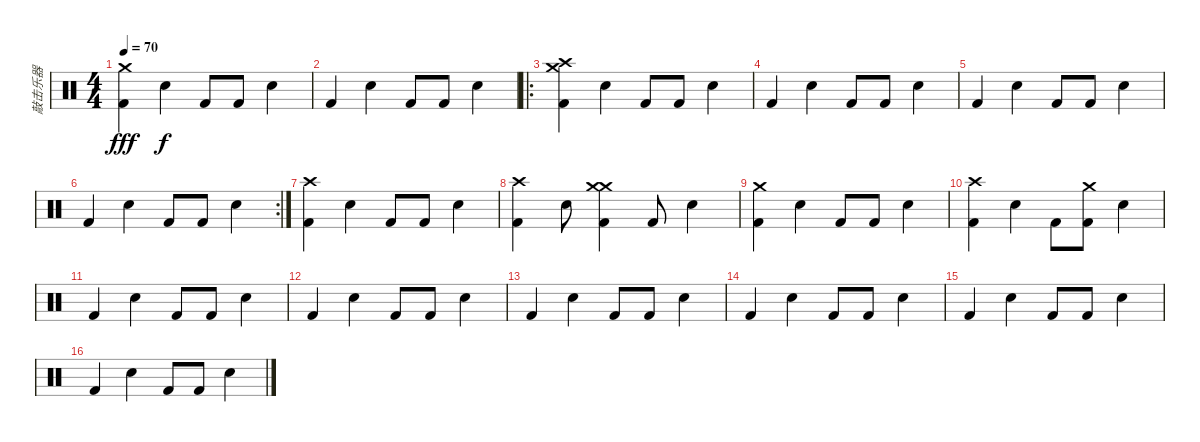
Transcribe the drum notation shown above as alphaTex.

\track ("敲击乐器" "敲击乐器") {instrument percussion}
\staff {score}
\articulation defaults
\ts (4 4)
\tempo 70
\clef neutral
\ks c
("Kick (hit) 2" "Crash medium (hit)").4{dy fff} "Electric Snare (hit)".4{dy f} "Kick (hit) 2".8 "Kick (hit) 2".8 "Electric Snare (hit)".4 |
"Kick (hit) 2".4 "Electric Snare (hit)".4 "Kick (hit) 2".8 "Kick (hit) 2".8 "Electric Snare (hit)".4 |
\ro
("Crash high (hit)" "Kick (hit) 2" "Crash medium (hit)").4 "Electric Snare (hit)".4 "Kick (hit) 2".8 "Kick (hit) 2".8 "Electric Snare (hit)".4 |
"Kick (hit) 2".4 "Electric Snare (hit)".4 "Kick (hit) 2".8 "Kick (hit) 2".8 "Electric Snare (hit)".4 |
"Kick (hit) 2".4 "Electric Snare (hit)".4 "Kick (hit) 2".8 "Kick (hit) 2".8 "Electric Snare (hit)".4 |
\rc 2 "Kick (hit) 2".4 "Electric Snare (hit)".4 "Kick (hit) 2".8 "Kick (hit) 2".8 "Electric Snare (hit)".4
|
("Kick (hit) 2" "Crash high (hit)").4 "Electric Snare (hit)".4 "Kick (hit) 2".8 "Kick (hit) 2".8 "Electric Snare (hit)".4 |
("Kick (hit) 2" "Crash high (hit)").4 "Electric Snare (hit)".8 ("Kick (hit) 2" "Crash medium (hit)" "Crash medium (hit)").4 "Kick (hit) 2".8 "Electric Snare (hit)".4 |
("Crash medium (hit)" "Kick (hit) 2").4 "Electric Snare (hit)".4 "Kick (hit) 2".8 "Kick (hit) 2".8 "Electric Snare (hit)".4 |
("Crash high (hit)" "Kick (hit) 2").4 "Electric Snare (hit)".4 "Kick (hit) 2".8 ("Crash medium (hit)" "Kick (hit) 2").8 "Electric Snare (hit)".4 |
"Kick (hit) 2".4 "Electric Snare (hit)".4 "Kick (hit) 2".8 "Kick (hit) 2".8 "Electric Snare (hit)".4 |
"Kick (hit) 2".4 "Electric Snare (hit)".4 "Kick (hit) 2".8 "Kick (hit) 2".8 "Electric Snare (hit)".4 |
"Kick (hit) 2".4 "Electric Snare (hit)".4 "Kick (hit) 2".8 "Kick (hit) 2".8 "Electric Snare (hit)".4 |
"Kick (hit) 2".4 "Electric Snare (hit)".4 "Kick (hit) 2".8 "Kick (hit) 2".8 "Electric Snare (hit)".4 |
"Kick (hit) 2".4 "Electric Snare (hit)".4 "Kick (hit) 2".8 "Kick (hit) 2".8 "Electric Snare (hit)".4 |
"Kick (hit) 2".4 "Electric Snare (hit)".4 "Kick (hit) 2".8 "Kick (hit) 2".8 "Electric Snare (hit)".4
